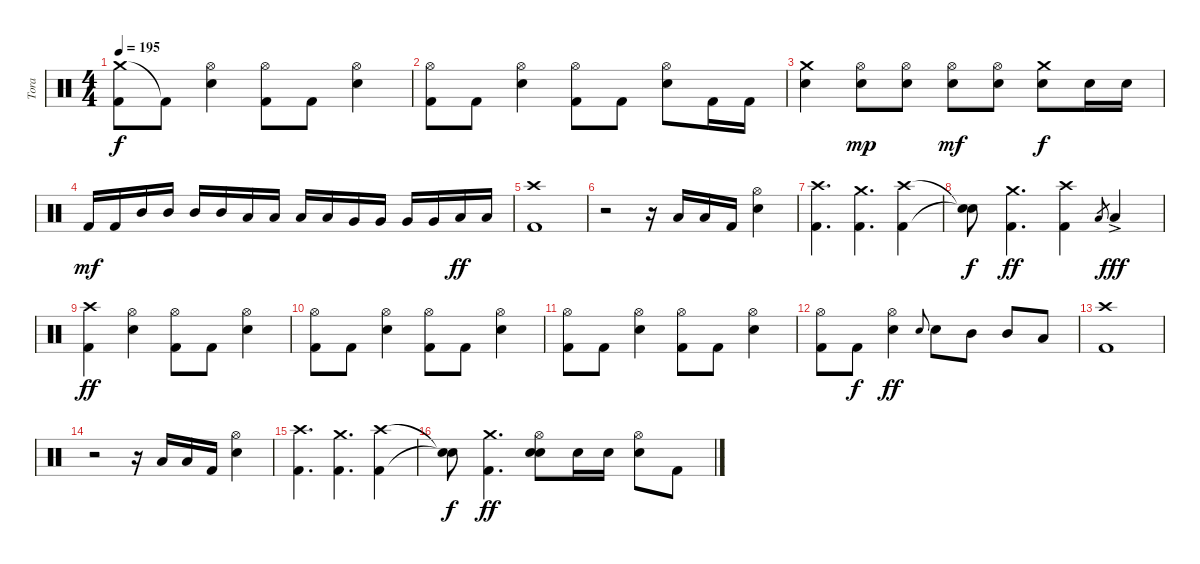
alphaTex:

\track ("Tora" "Tora") {instrument percussion}
\staff {score}
\articulation defaults
\ts (4 4)
\tempo 195
\clef neutral
\ks c
("Crash medium (hit)" "Kick (hit) 2").8{dy f} "Kick (hit) 2"{t}.8 ("Hi-Hat (open)" "Electric Snare (hit)").4 ("Hi-Hat (open)" "Kick (hit) 2").8 "Kick (hit) 2".8 ("Hi-Hat (open)" "Electric Snare (hit)").4 |
("Hi-Hat (open)" "Kick (hit) 2").8 "Kick (hit) 2".8 ("Hi-Hat (open)" "Electric Snare (hit)").4 ("Hi-Hat (open)" "Kick (hit) 2").8 "Kick (hit) 2".8 ("Hi-Hat (open)" "Electric Snare (hit)").8 "Kick (hit) 2".16 "Kick (hit) 2".16 |
("Crash medium (hit)" "Electric Snare (hit)").4 ("Hi-Hat (open)" "Electric Snare (hit)").8{dy mp} ("Hi-Hat (open)" "Electric Snare (hit)").8 ("Hi-Hat (open)" "Electric Snare (hit)").8{dy mf} ("Hi-Hat (open)" "Electric Snare (hit)").8 ("Crash medium (hit)" "Electric Snare (hit)").8{dy f} "Electric Snare (hit)".16 "Electric Snare (hit)".16 |
"Kick (hit) 2".16{dy mf} "Kick (hit) 2".16 "Mid Tom (hit)".16 "Mid Tom (hit)".16 "Mid Tom (hit)".16 "Mid Tom (hit)".16 "Low Tom (hit)".16 "Low Tom (hit)".16 "Low Tom (hit)".16 "Low Tom (hit)".16 "Very Low Tom (hit)".16 "Very Low Tom (hit)".16 "Very Low Tom (hit)".16 "Very Low Tom (hit)".16 "Low Floor Tom (hit)".16{dy ff} "Low Floor Tom (hit)".16 |
("Crash high (hit)" "Kick (hit) 2").1 |
r.2 r.16 "Low Tom (hit)".16 "Low Tom (hit)".16 "Kick (hit) 2".16 ("Hi-Hat (open)" "Electric Snare (hit)").4 |
("Crash high (hit)" "Kick (hit) 2").4{d} ("Crash medium (hit)" "Kick (hit) 2").4{d} ("Crash high (hit)" "Kick (hit) 2").4 |
("Snare (hit)"{t} "Snare (hit)"{t}).8{dy f} ("Crash medium (hit)" "Kick (hit) 2").4{d dy ff} ("Crash high (hit)" "Kick (hit) 2").4 "Low Tom (hit)".8{gr} "Low Tom (hit)"{ac}.4{dy fff} |
("Crash high (hit)" "Kick (hit) 2").4{dy ff} ("Hi-Hat (open)" "Electric Snare (hit)").4 ("Hi-Hat (open)" "Kick (hit) 2").8 "Kick (hit) 2".8 ("Hi-Hat (open)" "Electric Snare (hit)").4 |
("Hi-Hat (open)" "Kick (hit) 2").8 "Kick (hit) 2".8 ("Hi-Hat (open)" "Electric Snare (hit)").4 ("Hi-Hat (open)" "Kick (hit) 2").8 "Kick (hit) 2".8 ("Hi-Hat (open)" "Electric Snare (hit)").4 |
("Hi-Hat (open)" "Kick (hit) 2").8 "Kick (hit) 2".8 ("Hi-Hat (open)" "Electric Snare (hit)").4 ("Hi-Hat (open)" "Kick (hit) 2").8 "Kick (hit) 2".8 ("Hi-Hat (open)" "Electric Snare (hit)").4 |
("Hi-Hat (open)" "Kick (hit) 2").8 "Kick (hit) 2".8{dy f} ("Hi-Hat (open)" "Electric Snare (hit)").4{dy ff} "Electric Snare (hit)".8{gr onbeat} "Electric Snare (hit)".8 "Mid Tom (hit)".8 "Mid Tom (hit)".8 "Low Tom (hit)".8 |
("Crash high (hit)" "Kick (hit) 2").1 |
r.2 r.16 "Low Tom (hit)".16 "Low Tom (hit)".16 "Kick (hit) 2".16 ("Hi-Hat (open)" "Electric Snare (hit)").4 |
("Crash high (hit)" "Kick (hit) 2").4{d} ("Crash medium (hit)" "Kick (hit) 2").4{d} ("Crash high (hit)" "Kick (hit) 2").4 |
("Snare (hit)"{t} "Snare (hit)"{t}).8{dy f} ("Crash medium (hit)" "Kick (hit) 2").4{d dy ff} ("Hi-Hat (open)" "Electric Snare (hit)" "Snare (hit)").8 "Electric Snare (hit)".16 "Electric Snare (hit)".16 ("Hi-Hat (open)" "Electric Snare (hit)").8 "Kick (hit) 2".8
